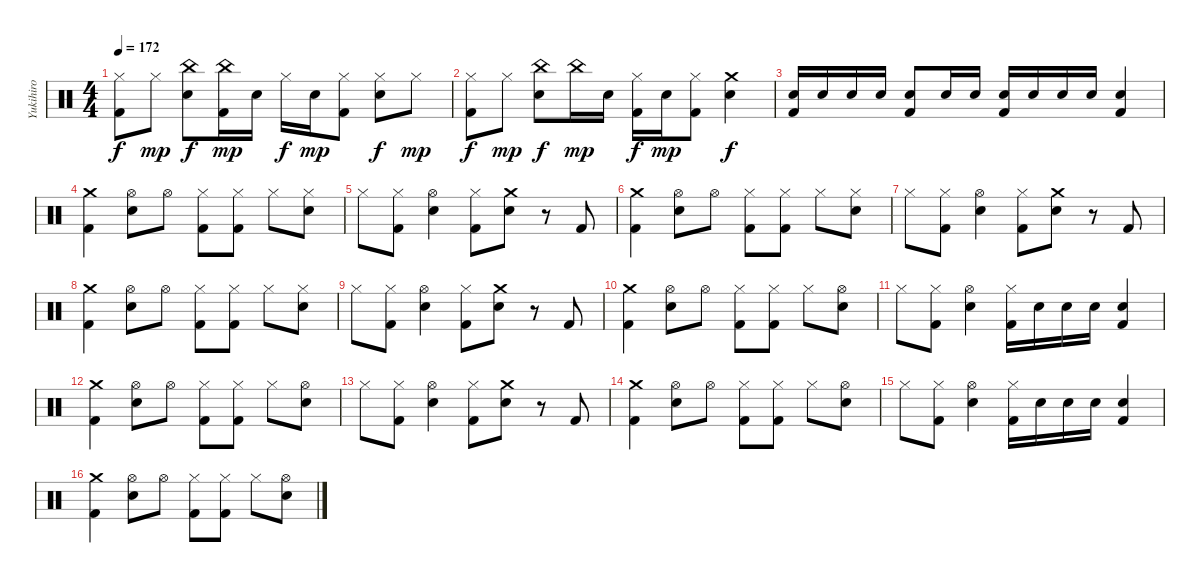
\track ("Yukihiro" "Yukihiro") {instrument percussion}
\staff {score}
\articulation defaults
\ts (4 4)
\tempo 172
\clef neutral
\ks c
("Hi-Hat (closed)" "Kick (hit) 2").8{dy f} "Hi-Hat (closed)".8{dy mp} ("China (hit)" "Electric Snare (hit)").8{dy f} ("China (hit)" "Kick (hit) 2").16{dy mp} "Electric Snare (hit)".16 "Hi-Hat (closed)".16{dy f} "Electric Snare (hit)".16{dy mp} ("Hi-Hat (closed)" "Kick (hit) 2").8 ("Hi-Hat (closed)" "Electric Snare (hit)").8{dy f} "Hi-Hat (closed)".8{dy mp} |
("Hi-Hat (closed)" "Kick (hit) 2").8{dy f} "Hi-Hat (closed)".8{dy mp} ("China (hit)" "Electric Snare (hit)").8{dy f} "China (hit)".16{dy mp} "Electric Snare (hit)".16 ("Hi-Hat (closed)" "Kick (hit) 2").16{dy f} "Electric Snare (hit)".16{dy mp} ("Hi-Hat (closed)" "Kick (hit) 2").8 ("Crash medium (hit)" "Electric Snare (hit)").4{dy f} |
("Electric Snare (hit)" "Kick (hit) 2").16 "Electric Snare (hit)".16 "Electric Snare (hit)".16 "Electric Snare (hit)".16 ("Electric Snare (hit)" "Kick (hit) 2").8 "Electric Snare (hit)".16 "Electric Snare (hit)".16 ("Electric Snare (hit)" "Kick (hit) 2").16 "Electric Snare (hit)".16 "Electric Snare (hit)".16 "Electric Snare (hit)".16 ("Electric Snare (hit)" "Kick (hit) 2").4 |
("Crash medium (hit)" "Kick (hit) 2").4 ("Hi-Hat (open)" "Electric Snare (hit)").8 "Hi-Hat (open)".8 ("Hi-Hat (closed)" "Kick (hit) 2").8 ("Hi-Hat (closed)" "Kick (hit) 2").8 "Hi-Hat (closed)".8 ("Hi-Hat (closed)" "Electric Snare (hit)").8 |
"Hi-Hat (closed)".8 ("Hi-Hat (closed)" "Kick (hit) 2").8 ("Hi-Hat (open)" "Electric Snare (hit)").4 ("Hi-Hat (closed)" "Kick (hit) 2").8 ("Crash medium (hit)" "Electric Snare (hit)").8 r.8 "Kick (hit) 2".8 |
("Crash medium (hit)" "Kick (hit) 2").4 ("Hi-Hat (open)" "Electric Snare (hit)").8 "Hi-Hat (open)".8 ("Hi-Hat (closed)" "Kick (hit) 2").8 ("Hi-Hat (closed)" "Kick (hit) 2").8 "Hi-Hat (closed)".8 ("Hi-Hat (closed)" "Electric Snare (hit)").8 |
"Hi-Hat (closed)".8 ("Hi-Hat (closed)" "Kick (hit) 2").8 ("Hi-Hat (open)" "Electric Snare (hit)").4 ("Hi-Hat (closed)" "Kick (hit) 2").8 ("Crash medium (hit)" "Electric Snare (hit)").8 r.8 "Kick (hit) 2".8 |
("Crash medium (hit)" "Kick (hit) 2").4 ("Hi-Hat (open)" "Electric Snare (hit)").8 "Hi-Hat (open)".8 ("Hi-Hat (closed)" "Kick (hit) 2").8 ("Hi-Hat (closed)" "Kick (hit) 2").8 "Hi-Hat (closed)".8 ("Hi-Hat (closed)" "Electric Snare (hit)").8 |
"Hi-Hat (closed)".8 ("Hi-Hat (closed)" "Kick (hit) 2").8 ("Hi-Hat (open)" "Electric Snare (hit)").4 ("Hi-Hat (closed)" "Kick (hit) 2").8 ("Crash medium (hit)" "Electric Snare (hit)").8 r.8 "Kick (hit) 2".8 |
("Crash medium (hit)" "Kick (hit) 2").4 ("Hi-Hat (open)" "Electric Snare (hit)").8 "Hi-Hat (open)".8 ("Hi-Hat (closed)" "Kick (hit) 2").8 ("Hi-Hat (closed)" "Kick (hit) 2").8 "Hi-Hat (closed)".8 ("Hi-Hat (open)" "Electric Snare (hit)").8 |
"Hi-Hat (closed)".8 ("Hi-Hat (closed)" "Kick (hit) 2").8 ("Hi-Hat (open)" "Electric Snare (hit)").4 ("Hi-Hat (closed)" "Kick (hit) 2").16 "Electric Snare (hit)".16 "Electric Snare (hit)".16 "Electric Snare (hit)".16 ("Electric Snare (hit)" "Kick (hit) 2").4 |
("Crash medium (hit)" "Kick (hit) 2").4 ("Hi-Hat (open)" "Electric Snare (hit)").8 "Hi-Hat (open)".8 ("Hi-Hat (closed)" "Kick (hit) 2").8 ("Hi-Hat (closed)" "Kick (hit) 2").8 "Hi-Hat (closed)".8 ("Hi-Hat (open)" "Electric Snare (hit)").8 |
"Hi-Hat (closed)".8 ("Hi-Hat (closed)" "Kick (hit) 2").8 ("Hi-Hat (open)" "Electric Snare (hit)").4 ("Hi-Hat (closed)" "Kick (hit) 2").8 ("Crash medium (hit)" "Electric Snare (hit)").8 r.8 "Kick (hit) 2".8 |
("Crash medium (hit)" "Kick (hit) 2").4 ("Hi-Hat (open)" "Electric Snare (hit)").8 "Hi-Hat (open)".8 ("Hi-Hat (closed)" "Kick (hit) 2").8 ("Hi-Hat (closed)" "Kick (hit) 2").8 "Hi-Hat (closed)".8 ("Hi-Hat (open)" "Electric Snare (hit)").8 |
"Hi-Hat (closed)".8 ("Hi-Hat (closed)" "Kick (hit) 2").8 ("Hi-Hat (open)" "Electric Snare (hit)").4 ("Hi-Hat (closed)" "Kick (hit) 2").16 "Electric Snare (hit)".16 "Electric Snare (hit)".16 "Electric Snare (hit)".16 ("Electric Snare (hit)" "Kick (hit) 2").4 |
("Crash medium (hit)" "Kick (hit) 2").4 ("Hi-Hat (open)" "Electric Snare (hit)").8 "Hi-Hat (open)".8 ("Hi-Hat (closed)" "Kick (hit) 2").8 ("Hi-Hat (closed)" "Kick (hit) 2").8 "Hi-Hat (closed)".8 ("Hi-Hat (open)" "Electric Snare (hit)").8
